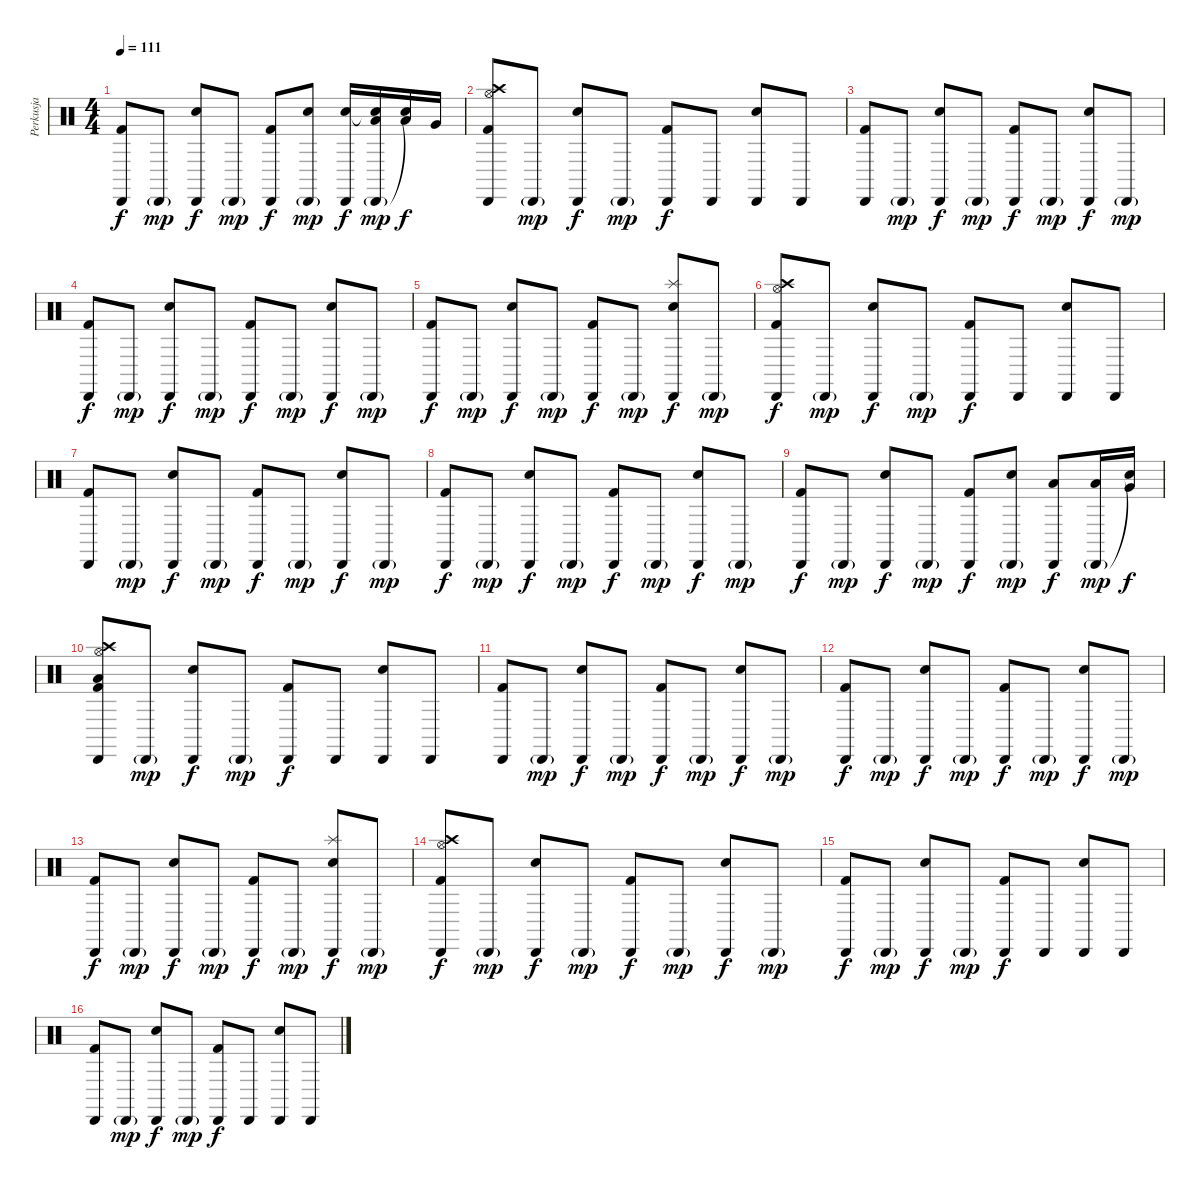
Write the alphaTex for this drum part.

\track ("Perkusja" "Perkusja") {instrument percussion}
\staff {score}
\articulation defaults
\ts (4 4)
\tempo 111
\clef neutral
\ks c
("Cabasa (hit)" "Kick (hit) 2").8{dy f} "Cabasa (hit)"{g}.8{dy mp} ("Cabasa (hit)" "Snare (hit) 2").8{dy f} "Cabasa (hit)"{g}.8{dy mp} ("Cabasa (hit)" "Kick (hit) 2").8{dy f} ("Cabasa (hit)"{g} "Snare (hit) 2").8{dy mp} ("Cabasa (hit)" "Snare (hit) 2").16{dy f} ("Cabasa (hit)"{g} "Snare (hit)"{t} "Low Tom (hit)").16{dy mp} ("Snare (hit)"{t} "Low Tom (hit)").16{dy f} "Very Low Tom (hit)".16 |
("Cabasa (hit)" "Kick (hit) 2" "Hi-Hat (open)" "Crash high (hit)").8 "Cabasa (hit)"{g}.8{dy mp} ("Cabasa (hit)" "Snare (hit) 2").8{dy f} "Cabasa (hit)"{g}.8{dy mp} ("Cabasa (hit)" "Kick (hit) 2").8{dy f} "Cabasa (hit)".8 ("Cabasa (hit)" "Snare (hit) 2").8 "Cabasa (hit)".8 |
("Cabasa (hit)" "Kick (hit) 2").8{volume 15} "Cabasa (hit)"{g}.8{dy mp} ("Cabasa (hit)" "Snare (hit) 2").8{dy f} "Cabasa (hit)"{g}.8{dy mp} ("Cabasa (hit)" "Kick (hit) 2").8{dy f} "Cabasa (hit)"{g}.8{dy mp} ("Cabasa (hit)" "Snare (hit) 2").8{dy f} "Cabasa (hit)"{g}.8{dy mp} |
("Cabasa (hit)" "Kick (hit) 2").8{dy f volume 14} "Cabasa (hit)"{g}.8{dy mp} ("Cabasa (hit)" "Snare (hit) 2").8{dy f} "Cabasa (hit)"{g}.8{dy mp} ("Cabasa (hit)" "Kick (hit) 2").8{dy f} "Cabasa (hit)"{g}.8{dy mp} ("Cabasa (hit)" "Snare (hit) 2").8{dy f} "Cabasa (hit)"{g}.8{dy mp} |
("Cabasa (hit)" "Kick (hit) 2").8{dy f volume 13} "Cabasa (hit)"{g}.8{dy mp} ("Cabasa (hit)" "Snare (hit) 2").8{dy f} "Cabasa (hit)"{g}.8{dy mp} ("Cabasa (hit)" "Kick (hit) 2").8{dy f} "Cabasa (hit)"{g}.8{dy mp} ("Cabasa (hit)" "Snare (hit) 2" "Splash (hit)").8{dy f} "Cabasa (hit)"{g}.8{dy mp} |
("Cabasa (hit)" "Kick (hit) 2" "Hi-Hat (open)" "Crash high (hit)").8{dy f volume 12} "Cabasa (hit)"{g}.8{dy mp} ("Cabasa (hit)" "Snare (hit) 2").8{dy f} "Cabasa (hit)"{g}.8{dy mp} ("Cabasa (hit)" "Kick (hit) 2").8{dy f} "Cabasa (hit)".8 ("Cabasa (hit)" "Snare (hit) 2").8 "Cabasa (hit)".8 |
("Cabasa (hit)" "Kick (hit) 2").8{volume 11} "Cabasa (hit)"{g}.8{dy mp} ("Cabasa (hit)" "Snare (hit) 2").8{dy f} "Cabasa (hit)"{g}.8{dy mp} ("Cabasa (hit)" "Kick (hit) 2").8{dy f} "Cabasa (hit)"{g}.8{dy mp} ("Cabasa (hit)" "Snare (hit) 2").8{dy f} "Cabasa (hit)"{g}.8{dy mp} |
("Cabasa (hit)" "Kick (hit) 2").8{dy f volume 10} "Cabasa (hit)"{g}.8{dy mp} ("Cabasa (hit)" "Snare (hit) 2").8{dy f} "Cabasa (hit)"{g}.8{dy mp} ("Cabasa (hit)" "Kick (hit) 2").8{dy f} "Cabasa (hit)"{g}.8{dy mp} ("Cabasa (hit)" "Snare (hit) 2").8{dy f} "Cabasa (hit)"{g}.8{dy mp} |
("Cabasa (hit)" "Kick (hit) 2").8{dy f volume 9} "Cabasa (hit)"{g}.8{dy mp} ("Cabasa (hit)" "Snare (hit) 2").8{dy f} "Cabasa (hit)"{g}.8{dy mp} ("Cabasa (hit)" "Kick (hit) 2").8{dy f} ("Cabasa (hit)"{g} "Snare (hit) 2").8{dy mp} ("Cabasa (hit)" "Low Tom (hit)").8{dy f} ("Cabasa (hit)"{g} "Low Tom (hit)").16{dy mp} ("Snare (hit)"{t} "Very Low Tom (hit)").16{dy f} |
("Cabasa (hit)" "Kick (hit) 2" "Hi-Hat (open)" "Crash high (hit)" "Low Floor Tom (hit)").8{volume 8} "Cabasa (hit)"{g}.8{dy mp} ("Cabasa (hit)" "Snare (hit) 2").8{dy f} "Cabasa (hit)"{g}.8{dy mp} ("Cabasa (hit)" "Kick (hit) 2").8{dy f} "Cabasa (hit)".8 ("Cabasa (hit)" "Snare (hit) 2").8 "Cabasa (hit)".8 |
("Cabasa (hit)" "Kick (hit) 2").8{volume 7} "Cabasa (hit)"{g}.8{dy mp} ("Cabasa (hit)" "Snare (hit) 2").8{dy f} "Cabasa (hit)"{g}.8{dy mp} ("Cabasa (hit)" "Kick (hit) 2").8{dy f} "Cabasa (hit)"{g}.8{dy mp} ("Cabasa (hit)" "Snare (hit) 2").8{dy f} "Cabasa (hit)"{g}.8{dy mp} |
("Cabasa (hit)" "Kick (hit) 2").8{dy f volume 6} "Cabasa (hit)"{g}.8{dy mp} ("Cabasa (hit)" "Snare (hit) 2").8{dy f} "Cabasa (hit)"{g}.8{dy mp} ("Cabasa (hit)" "Kick (hit) 2").8{dy f} "Cabasa (hit)"{g}.8{dy mp} ("Cabasa (hit)" "Snare (hit) 2").8{dy f} "Cabasa (hit)"{g}.8{dy mp} |
("Cabasa (hit)" "Kick (hit) 2").8{dy f volume 5} "Cabasa (hit)"{g}.8{dy mp} ("Cabasa (hit)" "Snare (hit) 2").8{dy f} "Cabasa (hit)"{g}.8{dy mp} ("Cabasa (hit)" "Kick (hit) 2").8{dy f} "Cabasa (hit)"{g}.8{dy mp} ("Cabasa (hit)" "Snare (hit) 2" "Splash (hit)").8{dy f} "Cabasa (hit)"{g}.8{dy mp} |
("Cabasa (hit)" "Kick (hit) 2" "Hi-Hat (open)" "Crash high (hit)").8{dy f volume 4} "Cabasa (hit)"{g}.8{dy mp} ("Cabasa (hit)" "Snare (hit) 2").8{dy f} "Cabasa (hit)"{g}.8{dy mp} ("Cabasa (hit)" "Kick (hit) 2").8{dy f} "Cabasa (hit)"{g}.8{dy mp} ("Cabasa (hit)" "Snare (hit) 2").8{dy f} "Cabasa (hit)"{g}.8{dy mp} |
("Cabasa (hit)" "Kick (hit) 2").8{dy f volume 3} "Cabasa (hit)"{g}.8{dy mp} ("Cabasa (hit)" "Snare (hit) 2").8{dy f} "Cabasa (hit)"{g}.8{dy mp} ("Cabasa (hit)" "Kick (hit) 2").8{dy f} "Cabasa (hit)".8 ("Cabasa (hit)" "Snare (hit) 2").8 "Cabasa (hit)".8 |
("Cabasa (hit)" "Kick (hit) 2").8{volume 2} "Cabasa (hit)"{g}.8{dy mp} ("Cabasa (hit)" "Snare (hit) 2").8{dy f} "Cabasa (hit)"{g}.8{dy mp} ("Cabasa (hit)" "Kick (hit) 2").8{dy f volume 1} "Cabasa (hit)".8 ("Cabasa (hit)" "Snare (hit) 2").8 "Cabasa (hit)".8{volume 0}
